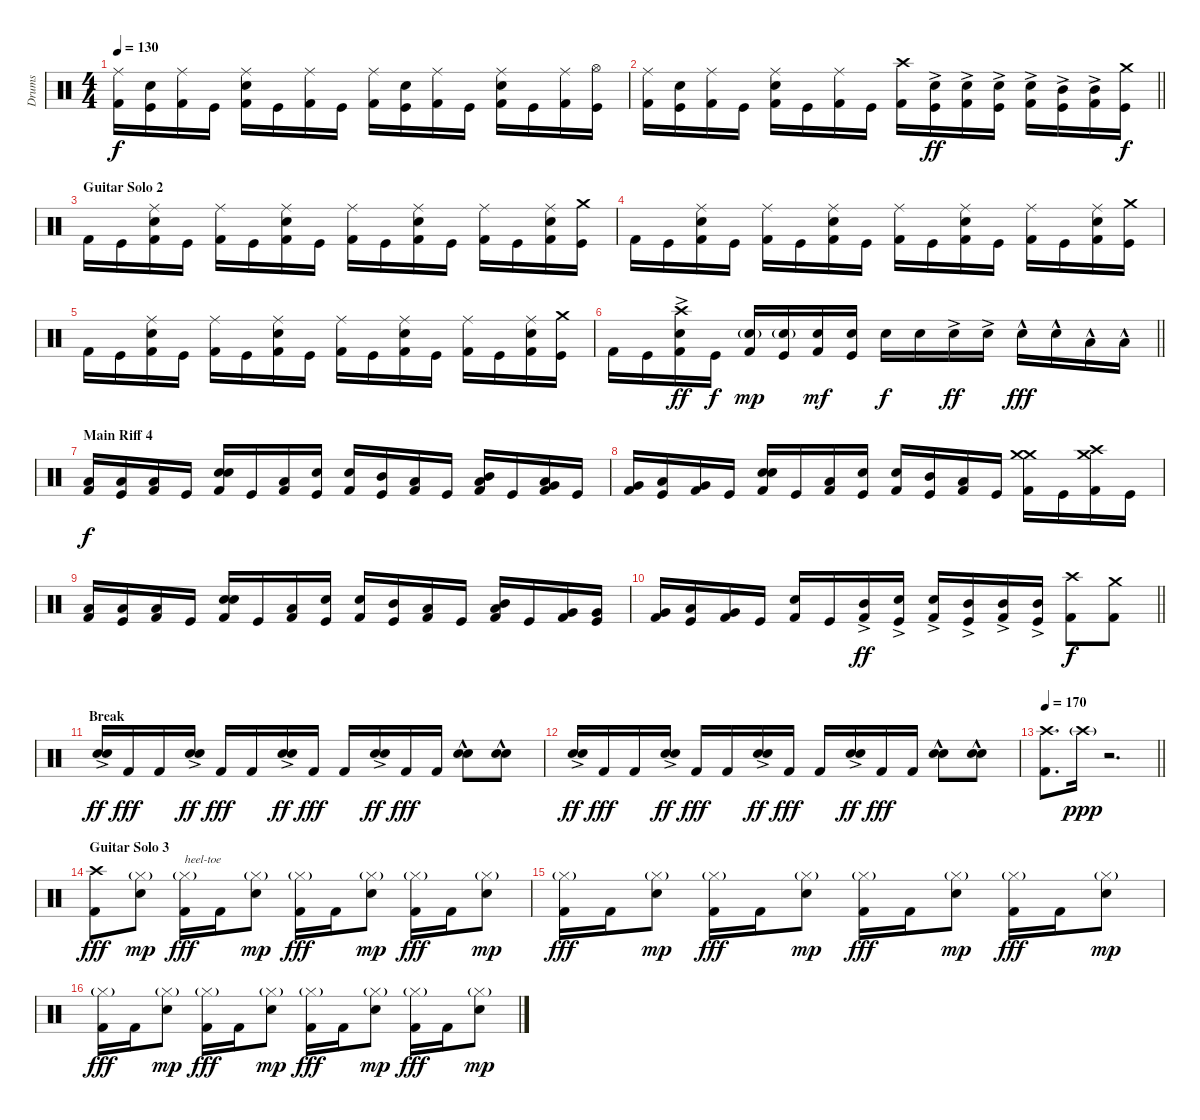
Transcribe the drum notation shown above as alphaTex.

\track ("Drums" "Drums") {instrument percussion}
\staff {score}
\articulation defaults
\ts (4 4)
\tempo 130
\clef neutral
\ks c
("Ride (middle)" "Kick (hit) 2").16{dy f} ("Snare (hit) 2" "Kick (hit)").16 ("Ride (middle)" "Kick (hit) 2").16 "Kick (hit)".16 ("Ride (middle)" "Snare (hit) 2" "Kick (hit) 2").16 "Kick (hit)".16 ("Ride (middle)" "Kick (hit) 2").16 "Kick (hit)".16 ("Ride (middle)" "Kick (hit) 2").16 ("Snare (hit) 2" "Kick (hit)").16 ("Ride (middle)" "Kick (hit) 2").16 "Kick (hit)".16 ("Ride (middle)" "Snare (hit) 2" "Kick (hit) 2").16 "Kick (hit)".16 ("Ride (middle)" "Kick (hit) 2").16 ("Hi-Hat (open)" "Kick (hit)").16 |
\barLineRight lightlight
("Ride (middle)" "Kick (hit) 2").16 ("Snare (hit) 2" "Kick (hit)").16 ("Ride (middle)" "Kick (hit) 2").16 "Kick (hit)".16 ("Ride (middle)" "Snare (hit) 2" "Kick (hit) 2").16 "Kick (hit)".16 ("Ride (middle)" "Kick (hit) 2").16 "Kick (hit)".16 ("Crash high (hit)" "Kick (hit) 2").16 ("Snare (hit) 2"{ac} "Kick (hit)").16{dy ff} ("Snare (hit) 2"{ac} "Kick (hit) 2").16 ("Snare (hit) 2"{ac} "Kick (hit)").16 ("Snare (hit) 2"{ac} "Kick (hit) 2").16 ("Mid Tom (hit)"{ac} "Kick (hit)").16 ("Mid Tom (hit)"{ac} "Kick (hit) 2").16 ("Crash medium (hit)" "Kick (hit)").16{dy f} |
\section ("" "Guitar Solo 2")
"Kick (hit) 2".16 "Kick (hit)".16 ("Ride (middle)" "Snare (hit) 2" "Kick (hit) 2").16 "Kick (hit)".16 ("Ride (middle)" "Kick (hit) 2").16 "Kick (hit)".16 ("Ride (middle)" "Snare (hit) 2" "Kick (hit) 2").16 "Kick (hit)".16 ("Ride (middle)" "Kick (hit) 2").16 "Kick (hit)".16 ("Ride (middle)" "Snare (hit) 2" "Kick (hit) 2").16 "Kick (hit)".16 ("Ride (middle)" "Kick (hit) 2").16 "Kick (hit)".16 ("Ride (middle)" "Snare (hit) 2" "Kick (hit) 2").16 ("Crash medium (hit)" "Kick (hit)").16 |
"Kick (hit) 2".16 "Kick (hit)".16 ("Ride (middle)" "Snare (hit) 2" "Kick (hit) 2").16 "Kick (hit)".16 ("Ride (middle)" "Kick (hit) 2").16 "Kick (hit)".16 ("Ride (middle)" "Snare (hit) 2" "Kick (hit) 2").16 "Kick (hit)".16 ("Ride (middle)" "Kick (hit) 2").16 "Kick (hit)".16 ("Ride (middle)" "Snare (hit) 2" "Kick (hit) 2").16 "Kick (hit)".16 ("Ride (middle)" "Kick (hit) 2").16 "Kick (hit)".16 ("Ride (middle)" "Snare (hit) 2" "Kick (hit) 2").16 ("Crash medium (hit)" "Kick (hit)").16 |
"Kick (hit) 2".16 "Kick (hit)".16 ("Ride (middle)" "Snare (hit) 2" "Kick (hit) 2").16 "Kick (hit)".16 ("Ride (middle)" "Kick (hit) 2").16 "Kick (hit)".16 ("Ride (middle)" "Snare (hit) 2" "Kick (hit) 2").16 "Kick (hit)".16 ("Ride (middle)" "Kick (hit) 2").16 "Kick (hit)".16 ("Ride (middle)" "Snare (hit) 2" "Kick (hit) 2").16 "Kick (hit)".16 ("Ride (middle)" "Kick (hit) 2").16 "Kick (hit)".16 ("Ride (middle)" "Snare (hit) 2" "Kick (hit) 2").16 ("Crash medium (hit)" "Kick (hit)").16 |
\barLineRight lightlight "Kick (hit) 2".16 "Kick (hit)".16
("Crash high (hit)" "Snare (hit) 2"{ac} "Kick (hit) 2").16{dy ff} "Kick (hit)".16{dy f} ("Snare (hit) 2"{g} "Kick (hit) 2").16{dy mp} ("Snare (hit) 2"{g} "Kick (hit)").16 ("Snare (hit) 2" "Kick (hit) 2").16{dy mf} ("Snare (hit) 2" "Kick (hit)").16 "Snare (hit) 2".16{dy f} "Snare (hit) 2".16 "Snare (hit) 2"{ac}.16{dy ff} "Snare (hit) 2"{ac}.16 "Snare (hit) 2"{hac}.16{dy fff} "Snare (hit) 2"{hac}.16 "Low Tom (hit)"{hac}.16 "Low Tom (hit)"{hac}.16 |
\section ("" "Main Riff 4")
("Low Tom (hit)" "Kick (hit) 2").16{dy f} ("Low Tom (hit)" "Kick (hit)").16 ("Low Tom (hit)" "Kick (hit) 2").16 "Kick (hit)".16 ("Snare (hit) 2" "Snare (hit) 2" "Kick (hit) 2").16 "Kick (hit)".16 ("Low Tom (hit)" "Kick (hit) 2").16 ("Snare (hit) 2" "Kick (hit)").16 ("Snare (hit) 2" "Kick (hit) 2").16 ("Mid Tom (hit)" "Kick (hit)").16 ("Low Tom (hit)" "Kick (hit) 2").16 "Kick (hit)".16 ("Mid Tom (hit)" "Low Tom (hit)" "Kick (hit) 2").16 "Kick (hit)".16 ("Low Tom (hit)" "Very Low Tom (hit)" "Kick (hit) 2").16 "Kick (hit)".16 |
("Very Low Tom (hit)" "Kick (hit) 2").16 ("Low Tom (hit)" "Kick (hit)").16 ("Very Low Tom (hit)" "Kick (hit) 2").16 "Kick (hit)".16 ("Snare (hit) 2" "Snare (hit) 2" "Kick (hit) 2").16 "Kick (hit)".16 ("Low Tom (hit)" "Kick (hit) 2").16 ("Snare (hit) 2" "Kick (hit)").16 ("Snare (hit) 2" "Kick (hit) 2").16 ("Mid Tom (hit)" "Kick (hit)").16 ("Low Tom (hit)" "Kick (hit) 2").16 "Kick (hit)".16 ("Crash medium (hit)" "Crash medium (hit)" "Kick (hit) 2").16 "Kick (hit)".16 ("Crash medium (hit)" "Crash high (hit)" "Kick (hit) 2").16 "Kick (hit)".16 |
("Low Tom (hit)" "Kick (hit) 2").16 ("Low Tom (hit)" "Kick (hit)").16 ("Low Tom (hit)" "Kick (hit) 2").16 "Kick (hit)".16 ("Snare (hit) 2" "Snare (hit) 2" "Kick (hit) 2").16 "Kick (hit)".16 ("Low Tom (hit)" "Kick (hit) 2").16 ("Snare (hit) 2" "Kick (hit)").16 ("Snare (hit) 2" "Kick (hit) 2").16 ("Mid Tom (hit)" "Kick (hit)").16 ("Low Tom (hit)" "Kick (hit) 2").16 "Kick (hit)".16 ("Mid Tom (hit)" "Low Tom (hit)" "Kick (hit) 2").16 "Kick (hit)".16 ("Very Low Tom (hit)" "Kick (hit) 2").16 ("Very Low Tom (hit)" "Kick (hit)").16 |
\barLineRight lightlight
("Very Low Tom (hit)" "Kick (hit) 2").16 ("Low Tom (hit)" "Kick (hit)").16 ("Very Low Tom (hit)" "Kick (hit) 2").16 "Kick (hit)".16 ("Snare (hit) 2" "Kick (hit) 2").16 "Kick (hit)".16 ("Mid Tom (hit)"{ac} "Kick (hit) 2").16{dy ff} ("Snare (hit) 2"{ac} "Kick (hit)").16 ("Snare (hit) 2"{ac} "Kick (hit) 2").16 ("Mid Tom (hit)"{ac} "Kick (hit)").16 ("Mid Tom (hit)"{ac} "Kick (hit) 2").16 ("Mid Tom (hit)"{ac} "Kick (hit)").16 ("Crash high (hit)" "Kick (hit) 2").8{dy f} ("Crash medium (hit)" "Kick (hit) 2").8 |
\section ("" "Break")
("Snare (hit) 2"{ac} "Snare (hit) 2"{ac}).16{bd 120 dy ff} "Kick (hit) 2".16{dy fff} "Kick (hit) 2".16 ("Snare (hit) 2"{ac} "Snare (hit) 2"{ac}).16{bd 120 dy ff} "Kick (hit) 2".16{dy fff} "Kick (hit) 2".16 ("Snare (hit) 2"{ac} "Snare (hit) 2"{ac}).16{bd 120 dy ff} "Kick (hit) 2".16{dy fff} "Kick (hit) 2".16 ("Snare (hit) 2"{ac} "Snare (hit) 2"{ac}).16{bd 120 dy ff} "Kick (hit) 2".16{dy fff} "Kick (hit) 2".16 ("Snare (hit) 2"{hac} "Snare (hit) 2"{hac}).8{bd 120} ("Snare (hit) 2"{hac} "Snare (hit) 2"{hac}).8{bd 120} |
("Snare (hit) 2"{ac} "Snare (hit) 2"{ac}).16{bd 120 dy ff} "Kick (hit) 2".16{dy fff} "Kick (hit) 2".16 ("Snare (hit) 2"{ac} "Snare (hit) 2"{ac}).16{bd 120 dy ff} "Kick (hit) 2".16{dy fff} "Kick (hit) 2".16 ("Snare (hit) 2"{ac} "Snare (hit) 2"{ac}).16{bd 120 dy ff} "Kick (hit) 2".16{dy fff} "Kick (hit) 2".16 ("Snare (hit) 2"{ac} "Snare (hit) 2"{ac}).16{bd 120 dy ff} "Kick (hit) 2".16{dy fff} "Kick (hit) 2".16 ("Snare (hit) 2"{hac} "Snare (hit) 2"{hac}).8{bd 120} ("Snare (hit) 2"{hac} "Snare (hit) 2"{hac}).8{bd 120} |
\tempo 170
\barLineRight lightlight
("Crash high (hit)" "Kick (hit) 2").8{d} "Crash high (hit)"{g}.16{dy ppp} r.2{d} |
\section ("" "Guitar Solo 3")
("Crash high (hit)" "Kick (hit) 2").8{dy fff} ("Hi-Hat (closed)"{g} "Snare (hit) 2").8{dy mp} ("Hi-Hat (closed)"{g} "Kick (hit) 2").16{txt "heel-toe" dy fff} "Kick (hit) 2".16 ("Hi-Hat (closed)"{g} "Snare (hit) 2").8{dy mp} ("Hi-Hat (closed)"{g} "Kick (hit) 2").16{dy fff} "Kick (hit) 2".16 ("Hi-Hat (closed)"{g} "Snare (hit) 2").8{dy mp} ("Hi-Hat (closed)"{g} "Kick (hit) 2").16{dy fff} "Kick (hit) 2".16 ("Hi-Hat (closed)"{g} "Snare (hit) 2").8{dy mp} |
("Hi-Hat (closed)"{g} "Kick (hit) 2").16{dy fff} "Kick (hit) 2".16 ("Hi-Hat (closed)"{g} "Snare (hit) 2").8{dy mp} ("Hi-Hat (closed)"{g} "Kick (hit) 2").16{dy fff} "Kick (hit) 2".16 ("Hi-Hat (closed)"{g} "Snare (hit) 2").8{dy mp} ("Hi-Hat (closed)"{g} "Kick (hit) 2").16{dy fff} "Kick (hit) 2".16 ("Hi-Hat (closed)"{g} "Snare (hit) 2").8{dy mp} ("Hi-Hat (closed)"{g} "Kick (hit) 2").16{dy fff} "Kick (hit) 2".16 ("Hi-Hat (closed)"{g} "Snare (hit) 2").8{dy mp} |
("Hi-Hat (closed)"{g} "Kick (hit) 2").16{dy fff} "Kick (hit) 2".16 ("Hi-Hat (closed)"{g} "Snare (hit) 2").8{dy mp} ("Hi-Hat (closed)"{g} "Kick (hit) 2").16{dy fff} "Kick (hit) 2".16 ("Hi-Hat (closed)"{g} "Snare (hit) 2").8{dy mp} ("Hi-Hat (closed)"{g} "Kick (hit) 2").16{dy fff} "Kick (hit) 2".16 ("Hi-Hat (closed)"{g} "Snare (hit) 2").8{dy mp} ("Hi-Hat (closed)"{g} "Kick (hit) 2").16{dy fff} "Kick (hit) 2".16 ("Hi-Hat (closed)"{g} "Snare (hit) 2").8{dy mp}
